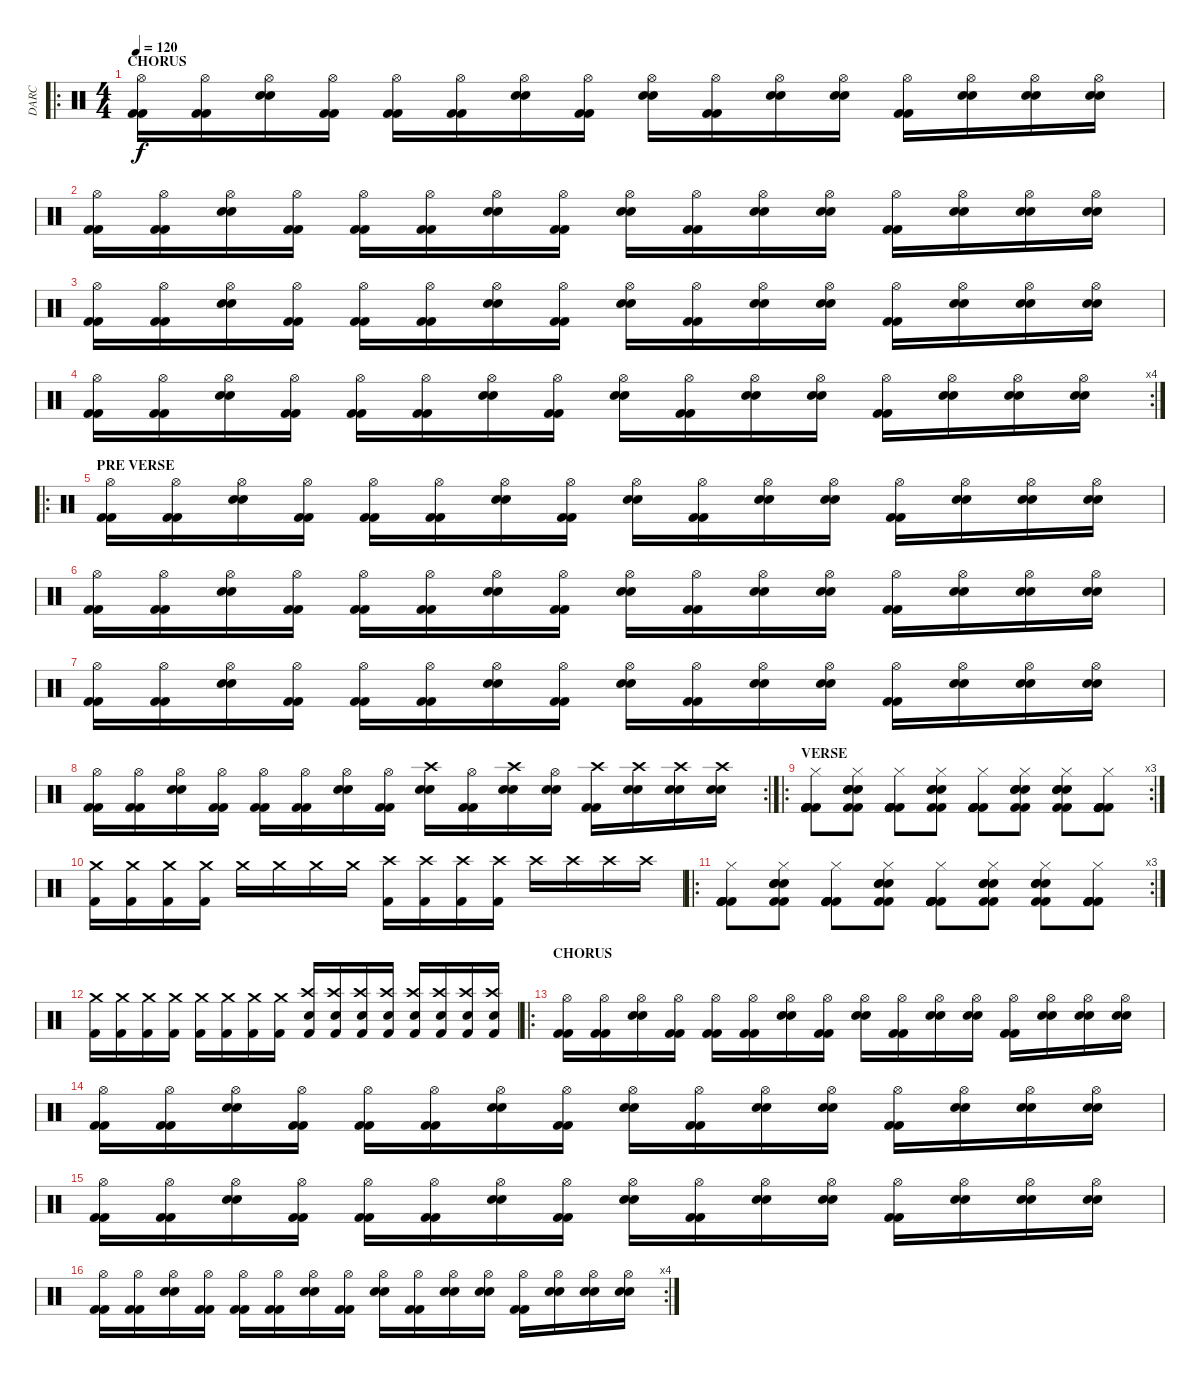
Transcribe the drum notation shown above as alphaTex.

\track ("DARC" "DARC") {instrument percussion}
\staff {score}
\articulation defaults
\ro
\ts (4 4)
\section ("" "CHORUS")
\tempo 120
\clef neutral
\ks c
("Hi-Hat (open)" "Kick (hit) 2" "Kick (hit) 2").16{dy f} ("Hi-Hat (open)" "Kick (hit) 2" "Kick (hit) 2").16 ("Hi-Hat (open)" "Snare (hit) 2" "Snare (hit) 2").16 ("Hi-Hat (open)" "Kick (hit) 2" "Kick (hit) 2").16 ("Hi-Hat (open)" "Kick (hit) 2" "Kick (hit) 2").16 ("Hi-Hat (open)" "Kick (hit) 2" "Kick (hit) 2").16 ("Hi-Hat (open)" "Snare (hit) 2" "Snare (hit) 2").16 ("Hi-Hat (open)" "Kick (hit) 2" "Kick (hit) 2").16 ("Hi-Hat (open)" "Snare (hit) 2" "Snare (hit) 2").16 ("Hi-Hat (open)" "Kick (hit) 2" "Kick (hit) 2").16 ("Hi-Hat (open)" "Snare (hit) 2" "Snare (hit) 2").16 ("Hi-Hat (open)" "Snare (hit) 2" "Snare (hit) 2").16 ("Hi-Hat (open)" "Kick (hit) 2" "Kick (hit) 2").16 ("Hi-Hat (open)" "Snare (hit) 2" "Snare (hit) 2").16 ("Hi-Hat (open)" "Snare (hit) 2" "Snare (hit) 2").16 ("Hi-Hat (open)" "Snare (hit) 2" "Snare (hit) 2").16 |
("Hi-Hat (open)" "Kick (hit) 2" "Kick (hit) 2").16 ("Hi-Hat (open)" "Kick (hit) 2" "Kick (hit) 2").16 ("Hi-Hat (open)" "Snare (hit) 2" "Snare (hit) 2").16 ("Hi-Hat (open)" "Kick (hit) 2" "Kick (hit) 2").16 ("Hi-Hat (open)" "Kick (hit) 2" "Kick (hit) 2").16 ("Hi-Hat (open)" "Kick (hit) 2" "Kick (hit) 2").16 ("Hi-Hat (open)" "Snare (hit) 2" "Snare (hit) 2").16 ("Hi-Hat (open)" "Kick (hit) 2" "Kick (hit) 2").16 ("Hi-Hat (open)" "Snare (hit) 2" "Snare (hit) 2").16 ("Hi-Hat (open)" "Kick (hit) 2" "Kick (hit) 2").16 ("Hi-Hat (open)" "Snare (hit) 2" "Snare (hit) 2").16 ("Hi-Hat (open)" "Snare (hit) 2" "Snare (hit) 2").16 ("Hi-Hat (open)" "Kick (hit) 2" "Kick (hit) 2").16 ("Hi-Hat (open)" "Snare (hit) 2" "Snare (hit) 2").16 ("Hi-Hat (open)" "Snare (hit) 2" "Snare (hit) 2").16 ("Hi-Hat (open)" "Snare (hit) 2" "Snare (hit) 2").16 |
("Hi-Hat (open)" "Kick (hit) 2" "Kick (hit) 2").16 ("Hi-Hat (open)" "Kick (hit) 2" "Kick (hit) 2").16 ("Hi-Hat (open)" "Snare (hit) 2" "Snare (hit) 2").16 ("Hi-Hat (open)" "Kick (hit) 2" "Kick (hit) 2").16 ("Hi-Hat (open)" "Kick (hit) 2" "Kick (hit) 2").16 ("Hi-Hat (open)" "Kick (hit) 2" "Kick (hit) 2").16 ("Hi-Hat (open)" "Snare (hit) 2" "Snare (hit) 2").16 ("Hi-Hat (open)" "Kick (hit) 2" "Kick (hit) 2").16 ("Hi-Hat (open)" "Snare (hit) 2" "Snare (hit) 2").16 ("Hi-Hat (open)" "Kick (hit) 2" "Kick (hit) 2").16 ("Hi-Hat (open)" "Snare (hit) 2" "Snare (hit) 2").16 ("Hi-Hat (open)" "Snare (hit) 2" "Snare (hit) 2").16 ("Hi-Hat (open)" "Kick (hit) 2" "Kick (hit) 2").16 ("Hi-Hat (open)" "Snare (hit) 2" "Snare (hit) 2").16 ("Hi-Hat (open)" "Snare (hit) 2" "Snare (hit) 2").16 ("Hi-Hat (open)" "Snare (hit) 2" "Snare (hit) 2").16 |
\rc 4
("Hi-Hat (open)" "Kick (hit) 2" "Kick (hit) 2").16 ("Hi-Hat (open)" "Kick (hit) 2" "Kick (hit) 2").16 ("Hi-Hat (open)" "Snare (hit) 2" "Snare (hit) 2").16 ("Hi-Hat (open)" "Kick (hit) 2" "Kick (hit) 2").16 ("Hi-Hat (open)" "Kick (hit) 2" "Kick (hit) 2").16 ("Hi-Hat (open)" "Kick (hit) 2" "Kick (hit) 2").16 ("Hi-Hat (open)" "Snare (hit) 2" "Snare (hit) 2").16 ("Hi-Hat (open)" "Kick (hit) 2" "Kick (hit) 2").16 ("Hi-Hat (open)" "Snare (hit) 2" "Snare (hit) 2").16 ("Hi-Hat (open)" "Kick (hit) 2" "Kick (hit) 2").16 ("Hi-Hat (open)" "Snare (hit) 2" "Snare (hit) 2").16 ("Hi-Hat (open)" "Snare (hit) 2" "Snare (hit) 2").16 ("Hi-Hat (open)" "Kick (hit) 2" "Kick (hit) 2").16 ("Hi-Hat (open)" "Snare (hit) 2" "Snare (hit) 2").16 ("Hi-Hat (open)" "Snare (hit) 2" "Snare (hit) 2").16 ("Hi-Hat (open)" "Snare (hit) 2" "Snare (hit) 2").16 |
\ro
\section ("" "PRE VERSE")
("Hi-Hat (open)" "Kick (hit) 2" "Kick (hit) 2").16 ("Hi-Hat (open)" "Kick (hit) 2" "Kick (hit) 2").16 ("Hi-Hat (open)" "Snare (hit) 2" "Snare (hit) 2").16 ("Hi-Hat (open)" "Kick (hit) 2" "Kick (hit) 2").16 ("Hi-Hat (open)" "Kick (hit) 2" "Kick (hit) 2").16 ("Hi-Hat (open)" "Kick (hit) 2" "Kick (hit) 2").16 ("Hi-Hat (open)" "Snare (hit) 2" "Snare (hit) 2").16 ("Hi-Hat (open)" "Kick (hit) 2" "Kick (hit) 2").16 ("Hi-Hat (open)" "Snare (hit) 2" "Snare (hit) 2").16 ("Hi-Hat (open)" "Kick (hit) 2" "Kick (hit) 2").16 ("Hi-Hat (open)" "Snare (hit) 2" "Snare (hit) 2").16 ("Hi-Hat (open)" "Snare (hit) 2" "Snare (hit) 2").16 ("Hi-Hat (open)" "Kick (hit) 2" "Kick (hit) 2").16 ("Hi-Hat (open)" "Snare (hit) 2" "Snare (hit) 2").16 ("Hi-Hat (open)" "Snare (hit) 2" "Snare (hit) 2").16 ("Hi-Hat (open)" "Snare (hit) 2" "Snare (hit) 2").16 |
("Hi-Hat (open)" "Kick (hit) 2" "Kick (hit) 2").16 ("Hi-Hat (open)" "Kick (hit) 2" "Kick (hit) 2").16 ("Hi-Hat (open)" "Snare (hit) 2" "Snare (hit) 2").16 ("Hi-Hat (open)" "Kick (hit) 2" "Kick (hit) 2").16 ("Hi-Hat (open)" "Kick (hit) 2" "Kick (hit) 2").16 ("Hi-Hat (open)" "Kick (hit) 2" "Kick (hit) 2").16 ("Hi-Hat (open)" "Snare (hit) 2" "Snare (hit) 2").16 ("Hi-Hat (open)" "Kick (hit) 2" "Kick (hit) 2").16 ("Hi-Hat (open)" "Snare (hit) 2" "Snare (hit) 2").16 ("Hi-Hat (open)" "Kick (hit) 2" "Kick (hit) 2").16 ("Hi-Hat (open)" "Snare (hit) 2" "Snare (hit) 2").16 ("Hi-Hat (open)" "Snare (hit) 2" "Snare (hit) 2").16 ("Hi-Hat (open)" "Kick (hit) 2" "Kick (hit) 2").16 ("Hi-Hat (open)" "Snare (hit) 2" "Snare (hit) 2").16 ("Hi-Hat (open)" "Snare (hit) 2" "Snare (hit) 2").16 ("Hi-Hat (open)" "Snare (hit) 2" "Snare (hit) 2").16 |
("Hi-Hat (open)" "Kick (hit) 2" "Kick (hit) 2").16 ("Hi-Hat (open)" "Kick (hit) 2" "Kick (hit) 2").16 ("Hi-Hat (open)" "Snare (hit) 2" "Snare (hit) 2").16 ("Hi-Hat (open)" "Kick (hit) 2" "Kick (hit) 2").16 ("Hi-Hat (open)" "Kick (hit) 2" "Kick (hit) 2").16 ("Hi-Hat (open)" "Kick (hit) 2" "Kick (hit) 2").16 ("Hi-Hat (open)" "Snare (hit) 2" "Snare (hit) 2").16 ("Hi-Hat (open)" "Kick (hit) 2" "Kick (hit) 2").16 ("Hi-Hat (open)" "Snare (hit) 2" "Snare (hit) 2").16 ("Hi-Hat (open)" "Kick (hit) 2" "Kick (hit) 2").16 ("Hi-Hat (open)" "Snare (hit) 2" "Snare (hit) 2").16 ("Hi-Hat (open)" "Snare (hit) 2" "Snare (hit) 2").16 ("Hi-Hat (open)" "Kick (hit) 2" "Kick (hit) 2").16 ("Hi-Hat (open)" "Snare (hit) 2" "Snare (hit) 2").16 ("Hi-Hat (open)" "Snare (hit) 2" "Snare (hit) 2").16 ("Hi-Hat (open)" "Snare (hit) 2" "Snare (hit) 2").16 |
\rc 2
("Hi-Hat (open)" "Kick (hit) 2" "Kick (hit) 2").16 ("Hi-Hat (open)" "Kick (hit) 2" "Kick (hit) 2").16 ("Hi-Hat (open)" "Snare (hit) 2" "Snare (hit) 2").16 ("Hi-Hat (open)" "Kick (hit) 2" "Kick (hit) 2").16 ("Hi-Hat (open)" "Kick (hit) 2" "Kick (hit) 2").16 ("Hi-Hat (open)" "Kick (hit) 2" "Kick (hit) 2").16 ("Hi-Hat (open)" "Snare (hit) 2" "Snare (hit) 2").16 ("Hi-Hat (open)" "Kick (hit) 2" "Kick (hit) 2").16 ("Crash high (hit)" "Snare (hit) 2" "Snare (hit) 2").16 ("Hi-Hat (open)" "Kick (hit) 2" "Kick (hit) 2").16 ("Crash high (hit)" "Snare (hit) 2" "Snare (hit) 2").16 ("Hi-Hat (open)" "Snare (hit) 2" "Snare (hit) 2").16 ("Crash high (hit)" "Kick (hit) 2" "Kick (hit) 2").16 ("Crash high (hit)" "Snare (hit) 2" "Snare (hit) 2").16 ("Crash high (hit)" "Snare (hit) 2" "Snare (hit) 2").16 ("Crash high (hit)" "Snare (hit) 2" "Snare (hit) 2").16 |
\ro
\rc 3
\section ("" "VERSE")
("Kick (hit) 2" "Hi-Hat (closed)" "Kick (hit) 2" "Kick (hit) 2" "Kick (hit) 2" "Kick (hit) 2").8 ("Kick (hit) 2" "Hi-Hat (closed)" "Electric Snare (hit)" "Electric Snare (hit)" "Electric Snare (hit)" "Kick (hit) 2").8 ("Kick (hit) 2" "Hi-Hat (closed)" "Kick (hit) 2" "Kick (hit) 2" "Kick (hit) 2" "Kick (hit) 2").8 ("Kick (hit) 2" "Hi-Hat (closed)" "Electric Snare (hit)" "Electric Snare (hit)" "Electric Snare (hit)" "Kick (hit) 2").8 ("Kick (hit) 2" "Hi-Hat (closed)" "Kick (hit) 2" "Kick (hit) 2" "Kick (hit) 2" "Kick (hit) 2").8 ("Kick (hit) 2" "Hi-Hat (closed)" "Electric Snare (hit)" "Electric Snare (hit)" "Electric Snare (hit)" "Kick (hit) 2").8 ("Kick (hit) 2" "Hi-Hat (closed)" "Electric Snare (hit)" "Electric Snare (hit)" "Electric Snare (hit)" "Kick (hit) 2").8 ("Kick (hit) 2" "Hi-Hat (closed)" "Kick (hit) 2" "Kick (hit) 2" "Kick (hit) 2" "Kick (hit) 2").8 |
("Kick (hit) 2" "Crash medium (hit)").16 ("Kick (hit) 2" "Crash medium (hit)").16 ("Kick (hit) 2" "Crash medium (hit)").16 ("Kick (hit) 2" "Crash medium (hit)").16 "Crash medium (hit)".16 "Crash medium (hit)".16 "Crash medium (hit)".16 "Crash medium (hit)".16 ("Kick (hit) 2" "Crash high (hit)").16 ("Kick (hit) 2" "Crash high (hit)").16 ("Kick (hit) 2" "Crash high (hit)").16 ("Kick (hit) 2" "Crash high (hit)").16 "Crash high (hit)".16 "Crash high (hit)".16 "Crash high (hit)".16 "Crash high (hit)".16 |
\ro
\rc 3
("Kick (hit) 2" "Hi-Hat (closed)" "Kick (hit) 2" "Kick (hit) 2" "Kick (hit) 2" "Kick (hit) 2").8 ("Kick (hit) 2" "Hi-Hat (closed)" "Electric Snare (hit)" "Electric Snare (hit)" "Electric Snare (hit)" "Kick (hit) 2").8 ("Kick (hit) 2" "Hi-Hat (closed)" "Kick (hit) 2" "Kick (hit) 2" "Kick (hit) 2" "Kick (hit) 2").8 ("Kick (hit) 2" "Hi-Hat (closed)" "Electric Snare (hit)" "Electric Snare (hit)" "Electric Snare (hit)" "Kick (hit) 2").8 ("Kick (hit) 2" "Hi-Hat (closed)" "Kick (hit) 2" "Kick (hit) 2" "Kick (hit) 2" "Kick (hit) 2").8 ("Kick (hit) 2" "Hi-Hat (closed)" "Electric Snare (hit)" "Electric Snare (hit)" "Electric Snare (hit)" "Kick (hit) 2").8 ("Kick (hit) 2" "Hi-Hat (closed)" "Electric Snare (hit)" "Electric Snare (hit)" "Electric Snare (hit)" "Kick (hit) 2").8 ("Kick (hit) 2" "Hi-Hat (closed)" "Kick (hit) 2" "Kick (hit) 2" "Kick (hit) 2" "Kick (hit) 2").8 |
("Kick (hit) 2" "Crash medium (hit)").16 ("Kick (hit) 2" "Crash medium (hit)").16 ("Kick (hit) 2" "Crash medium (hit)").16 ("Kick (hit) 2" "Crash medium (hit)").16 ("Kick (hit) 2" "Crash medium (hit)").16 ("Kick (hit) 2" "Crash medium (hit)").16 ("Kick (hit) 2" "Crash medium (hit)").16 ("Kick (hit) 2" "Crash medium (hit)").16 ("Kick (hit) 2" "Electric Snare (hit)" "Crash high (hit)").16 ("Kick (hit) 2" "Electric Snare (hit)" "Crash high (hit)").16 ("Kick (hit) 2" "Electric Snare (hit)" "Crash high (hit)").16 ("Kick (hit) 2" "Electric Snare (hit)" "Crash high (hit)").16 ("Kick (hit) 2" "Electric Snare (hit)" "Crash high (hit)").16 ("Kick (hit) 2" "Electric Snare (hit)" "Crash high (hit)").16 ("Kick (hit) 2" "Electric Snare (hit)" "Crash high (hit)").16 ("Kick (hit) 2" "Electric Snare (hit)" "Crash high (hit)").16 |
\ro
\section ("" "CHORUS")
("Hi-Hat (open)" "Kick (hit) 2" "Kick (hit) 2").16 ("Hi-Hat (open)" "Kick (hit) 2" "Kick (hit) 2").16 ("Hi-Hat (open)" "Snare (hit) 2" "Snare (hit) 2").16 ("Hi-Hat (open)" "Kick (hit) 2" "Kick (hit) 2").16 ("Hi-Hat (open)" "Kick (hit) 2" "Kick (hit) 2").16 ("Hi-Hat (open)" "Kick (hit) 2" "Kick (hit) 2").16 ("Hi-Hat (open)" "Snare (hit) 2" "Snare (hit) 2").16 ("Hi-Hat (open)" "Kick (hit) 2" "Kick (hit) 2").16 ("Hi-Hat (open)" "Snare (hit) 2" "Snare (hit) 2").16 ("Hi-Hat (open)" "Kick (hit) 2" "Kick (hit) 2").16 ("Hi-Hat (open)" "Snare (hit) 2" "Snare (hit) 2").16 ("Hi-Hat (open)" "Snare (hit) 2" "Snare (hit) 2").16 ("Hi-Hat (open)" "Kick (hit) 2" "Kick (hit) 2").16 ("Hi-Hat (open)" "Snare (hit) 2" "Snare (hit) 2").16 ("Hi-Hat (open)" "Snare (hit) 2" "Snare (hit) 2").16 ("Hi-Hat (open)" "Snare (hit) 2" "Snare (hit) 2").16 |
("Hi-Hat (open)" "Kick (hit) 2" "Kick (hit) 2").16 ("Hi-Hat (open)" "Kick (hit) 2" "Kick (hit) 2").16 ("Hi-Hat (open)" "Snare (hit) 2" "Snare (hit) 2").16 ("Hi-Hat (open)" "Kick (hit) 2" "Kick (hit) 2").16 ("Hi-Hat (open)" "Kick (hit) 2" "Kick (hit) 2").16 ("Hi-Hat (open)" "Kick (hit) 2" "Kick (hit) 2").16 ("Hi-Hat (open)" "Snare (hit) 2" "Snare (hit) 2").16 ("Hi-Hat (open)" "Kick (hit) 2" "Kick (hit) 2").16 ("Hi-Hat (open)" "Snare (hit) 2" "Snare (hit) 2").16 ("Hi-Hat (open)" "Kick (hit) 2" "Kick (hit) 2").16 ("Hi-Hat (open)" "Snare (hit) 2" "Snare (hit) 2").16 ("Hi-Hat (open)" "Snare (hit) 2" "Snare (hit) 2").16 ("Hi-Hat (open)" "Kick (hit) 2" "Kick (hit) 2").16 ("Hi-Hat (open)" "Snare (hit) 2" "Snare (hit) 2").16 ("Hi-Hat (open)" "Snare (hit) 2" "Snare (hit) 2").16 ("Hi-Hat (open)" "Snare (hit) 2" "Snare (hit) 2").16 |
("Hi-Hat (open)" "Kick (hit) 2" "Kick (hit) 2").16 ("Hi-Hat (open)" "Kick (hit) 2" "Kick (hit) 2").16 ("Hi-Hat (open)" "Snare (hit) 2" "Snare (hit) 2").16 ("Hi-Hat (open)" "Kick (hit) 2" "Kick (hit) 2").16 ("Hi-Hat (open)" "Kick (hit) 2" "Kick (hit) 2").16 ("Hi-Hat (open)" "Kick (hit) 2" "Kick (hit) 2").16 ("Hi-Hat (open)" "Snare (hit) 2" "Snare (hit) 2").16 ("Hi-Hat (open)" "Kick (hit) 2" "Kick (hit) 2").16 ("Hi-Hat (open)" "Snare (hit) 2" "Snare (hit) 2").16 ("Hi-Hat (open)" "Kick (hit) 2" "Kick (hit) 2").16 ("Hi-Hat (open)" "Snare (hit) 2" "Snare (hit) 2").16 ("Hi-Hat (open)" "Snare (hit) 2" "Snare (hit) 2").16 ("Hi-Hat (open)" "Kick (hit) 2" "Kick (hit) 2").16 ("Hi-Hat (open)" "Snare (hit) 2" "Snare (hit) 2").16 ("Hi-Hat (open)" "Snare (hit) 2" "Snare (hit) 2").16 ("Hi-Hat (open)" "Snare (hit) 2" "Snare (hit) 2").16 |
\rc 4
("Hi-Hat (open)" "Kick (hit) 2" "Kick (hit) 2").16 ("Hi-Hat (open)" "Kick (hit) 2" "Kick (hit) 2").16 ("Hi-Hat (open)" "Snare (hit) 2" "Snare (hit) 2").16 ("Hi-Hat (open)" "Kick (hit) 2" "Kick (hit) 2").16 ("Hi-Hat (open)" "Kick (hit) 2" "Kick (hit) 2").16 ("Hi-Hat (open)" "Kick (hit) 2" "Kick (hit) 2").16 ("Hi-Hat (open)" "Snare (hit) 2" "Snare (hit) 2").16 ("Hi-Hat (open)" "Kick (hit) 2" "Kick (hit) 2").16 ("Hi-Hat (open)" "Snare (hit) 2" "Snare (hit) 2").16 ("Hi-Hat (open)" "Kick (hit) 2" "Kick (hit) 2").16 ("Hi-Hat (open)" "Snare (hit) 2" "Snare (hit) 2").16 ("Hi-Hat (open)" "Snare (hit) 2" "Snare (hit) 2").16 ("Hi-Hat (open)" "Kick (hit) 2" "Kick (hit) 2").16 ("Hi-Hat (open)" "Snare (hit) 2" "Snare (hit) 2").16 ("Hi-Hat (open)" "Snare (hit) 2" "Snare (hit) 2").16 ("Hi-Hat (open)" "Snare (hit) 2" "Snare (hit) 2").16
